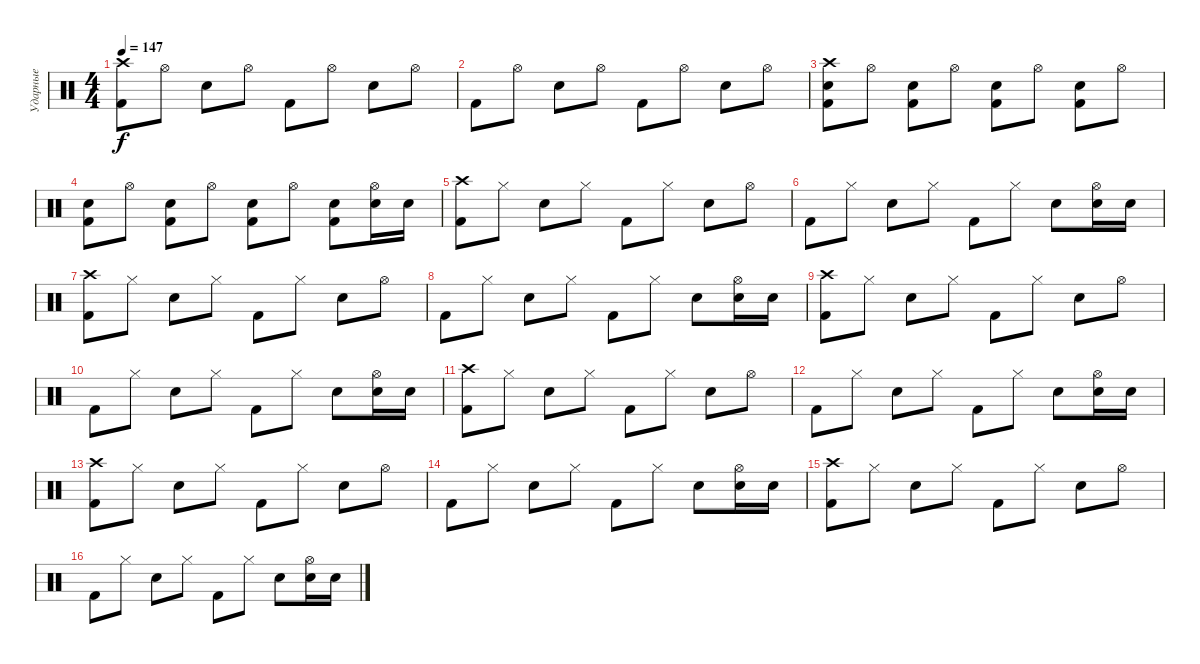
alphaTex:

\track ("Ударные" "Ударные") {instrument percussion}
\staff {score}
\articulation defaults
\ts (4 4)
\tempo 147
\clef neutral
\ks c
("Crash high (hit)" "Kick (hit) 2").8{dy f} "Hi-Hat (open)".8 "Electric Snare (hit)".8 "Hi-Hat (open)".8 "Kick (hit) 2".8 "Hi-Hat (open)".8 "Electric Snare (hit)".8 "Hi-Hat (open)".8 |
"Kick (hit) 2".8 "Hi-Hat (open)".8 "Electric Snare (hit)".8 "Hi-Hat (open)".8 "Kick (hit) 2".8 "Hi-Hat (open)".8 "Electric Snare (hit)".8 "Hi-Hat (open)".8 |
("Crash high (hit)" "Electric Snare (hit)" "Kick (hit) 2").8 "Hi-Hat (open)".8 ("Electric Snare (hit)" "Kick (hit) 2").8 "Hi-Hat (open)".8 ("Electric Snare (hit)" "Kick (hit) 2").8 "Hi-Hat (open)".8 ("Electric Snare (hit)" "Kick (hit) 2").8 "Hi-Hat (open)".8 |
("Electric Snare (hit)" "Kick (hit) 2").8 "Hi-Hat (open)".8 ("Electric Snare (hit)" "Kick (hit) 2").8 "Hi-Hat (open)".8 ("Electric Snare (hit)" "Kick (hit) 2").8 "Hi-Hat (open)".8 ("Electric Snare (hit)" "Kick (hit) 2").8 ("Hi-Hat (open)" "Electric Snare (hit)").16 "Electric Snare (hit)".16 |
("Crash high (hit)" "Kick (hit) 2").8 "Hi-Hat (closed)".8 "Electric Snare (hit)".8 "Hi-Hat (closed)".8 "Kick (hit) 2".8 "Hi-Hat (closed)".8 "Electric Snare (hit)".8 "Hi-Hat (open)".8 |
"Kick (hit) 2".8 "Hi-Hat (closed)".8 "Electric Snare (hit)".8 "Hi-Hat (closed)".8 "Kick (hit) 2".8 "Hi-Hat (closed)".8 "Electric Snare (hit)".8 ("Hi-Hat (open)" "Electric Snare (hit)").16 "Electric Snare (hit)".16 |
("Crash high (hit)" "Kick (hit) 2").8 "Hi-Hat (closed)".8 "Electric Snare (hit)".8 "Hi-Hat (closed)".8 "Kick (hit) 2".8 "Hi-Hat (closed)".8 "Electric Snare (hit)".8 "Hi-Hat (open)".8 |
"Kick (hit) 2".8 "Hi-Hat (closed)".8 "Electric Snare (hit)".8 "Hi-Hat (closed)".8 "Kick (hit) 2".8 "Hi-Hat (closed)".8 "Electric Snare (hit)".8 ("Hi-Hat (open)" "Electric Snare (hit)").16 "Electric Snare (hit)".16 |
("Crash high (hit)" "Kick (hit) 2").8 "Hi-Hat (closed)".8 "Electric Snare (hit)".8 "Hi-Hat (closed)".8 "Kick (hit) 2".8 "Hi-Hat (closed)".8 "Electric Snare (hit)".8 "Hi-Hat (open)".8 |
"Kick (hit) 2".8 "Hi-Hat (closed)".8 "Electric Snare (hit)".8 "Hi-Hat (closed)".8 "Kick (hit) 2".8 "Hi-Hat (closed)".8 "Electric Snare (hit)".8 ("Hi-Hat (open)" "Electric Snare (hit)").16 "Electric Snare (hit)".16 |
("Crash high (hit)" "Kick (hit) 2").8 "Hi-Hat (closed)".8 "Electric Snare (hit)".8 "Hi-Hat (closed)".8 "Kick (hit) 2".8 "Hi-Hat (closed)".8 "Electric Snare (hit)".8 "Hi-Hat (open)".8 |
"Kick (hit) 2".8 "Hi-Hat (closed)".8 "Electric Snare (hit)".8 "Hi-Hat (closed)".8 "Kick (hit) 2".8 "Hi-Hat (closed)".8 "Electric Snare (hit)".8 ("Hi-Hat (open)" "Electric Snare (hit)").16 "Electric Snare (hit)".16 |
("Crash high (hit)" "Kick (hit) 2").8 "Hi-Hat (closed)".8 "Electric Snare (hit)".8 "Hi-Hat (closed)".8 "Kick (hit) 2".8 "Hi-Hat (closed)".8 "Electric Snare (hit)".8 "Hi-Hat (open)".8 |
"Kick (hit) 2".8 "Hi-Hat (closed)".8 "Electric Snare (hit)".8 "Hi-Hat (closed)".8 "Kick (hit) 2".8 "Hi-Hat (closed)".8 "Electric Snare (hit)".8 ("Hi-Hat (open)" "Electric Snare (hit)").16 "Electric Snare (hit)".16 |
("Crash high (hit)" "Kick (hit) 2").8 "Hi-Hat (closed)".8 "Electric Snare (hit)".8 "Hi-Hat (closed)".8 "Kick (hit) 2".8 "Hi-Hat (closed)".8 "Electric Snare (hit)".8 "Hi-Hat (open)".8 |
"Kick (hit) 2".8 "Hi-Hat (closed)".8 "Electric Snare (hit)".8 "Hi-Hat (closed)".8 "Kick (hit) 2".8 "Hi-Hat (closed)".8 "Electric Snare (hit)".8 ("Hi-Hat (open)" "Electric Snare (hit)").16 "Electric Snare (hit)".16
